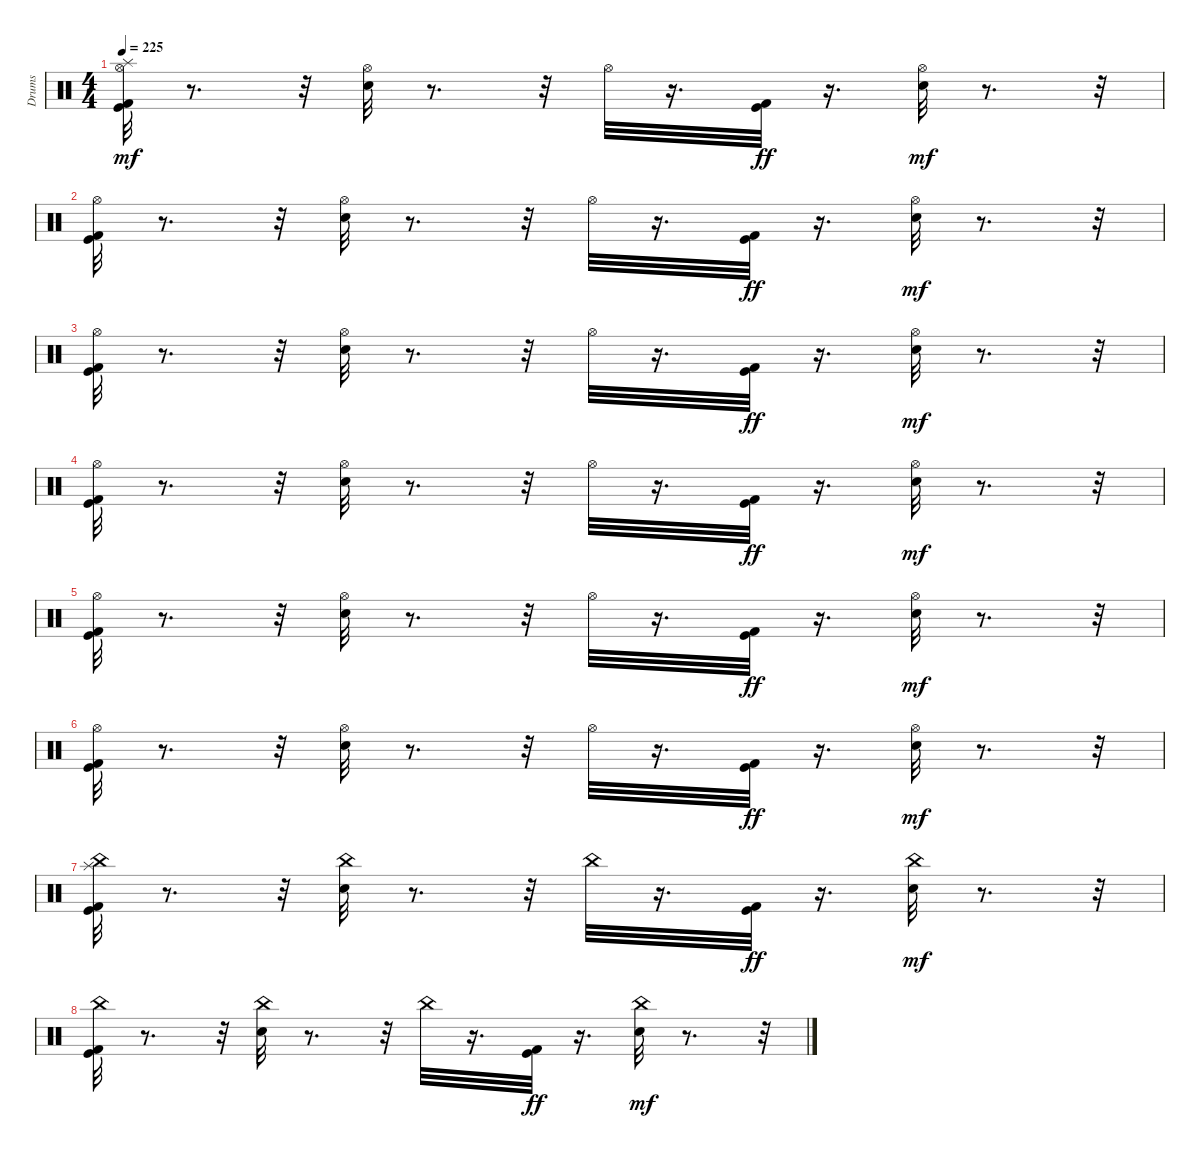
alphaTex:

\track ("Drums" "Drums") {instrument percussion}
\staff {score}
\articulation defaults
\ts (4 4)
\tempo 225
\clef neutral
\ks c
("Kick (hit) 2" "Kick (hit)" "Hi-Hat (open)" "Splash (hit)").32{dy mf} r.8{d} r.32 ("Snare (hit) 2" "Hi-Hat (open)").32 r.8{d} r.32 "Hi-Hat (open)".32 r.16{d} ("Kick (hit) 2" "Kick (hit)").32{dy ff} r.16{d} ("Snare (hit) 2" "Hi-Hat (open)").32{dy mf} r.8{d} r.32 |
("Kick (hit) 2" "Kick (hit)" "Hi-Hat (open)").32 r.8{d} r.32 ("Snare (hit) 2" "Hi-Hat (open)").32 r.8{d} r.32 "Hi-Hat (open)".32 r.16{d} ("Kick (hit) 2" "Kick (hit)").32{dy ff} r.16{d} ("Snare (hit) 2" "Hi-Hat (open)").32{dy mf} r.8{d} r.32 |
("Kick (hit) 2" "Kick (hit)" "Hi-Hat (open)").32 r.8{d} r.32 ("Snare (hit) 2" "Hi-Hat (open)").32 r.8{d} r.32 "Hi-Hat (open)".32 r.16{d} ("Kick (hit) 2" "Kick (hit)").32{dy ff} r.16{d} ("Snare (hit) 2" "Hi-Hat (open)").32{dy mf} r.8{d} r.32 |
("Kick (hit) 2" "Kick (hit)" "Hi-Hat (open)").32 r.8{d} r.32 ("Snare (hit) 2" "Hi-Hat (open)").32 r.8{d} r.32 "Hi-Hat (open)".32 r.16{d} ("Kick (hit) 2" "Kick (hit)").32{dy ff} r.16{d} ("Snare (hit) 2" "Hi-Hat (open)").32{dy mf} r.8{d} r.32 |
("Kick (hit) 2" "Kick (hit)" "Hi-Hat (open)").32 r.8{d} r.32 ("Snare (hit) 2" "Hi-Hat (open)").32 r.8{d} r.32 "Hi-Hat (open)".32 r.16{d} ("Kick (hit) 2" "Kick (hit)").32{dy ff} r.16{d} ("Snare (hit) 2" "Hi-Hat (open)").32{dy mf} r.8{d} r.32 |
("Kick (hit) 2" "Kick (hit)" "Hi-Hat (open)").32 r.8{d} r.32 ("Snare (hit) 2" "Hi-Hat (open)").32 r.8{d} r.32 "Hi-Hat (open)".32 r.16{d} ("Kick (hit) 2" "Kick (hit)").32{dy ff} r.16{d} ("Snare (hit) 2" "Hi-Hat (open)").32{dy mf} r.8{d} r.32 |
("Kick (hit) 2" "Kick (hit)" "China (hit)" "Splash (hit)").32 r.8{d} r.32 ("Snare (hit) 2" "China (hit)").32 r.8{d} r.32 "China (hit)".32 r.16{d} ("Kick (hit) 2" "Kick (hit)").32{dy ff} r.16{d} ("Snare (hit) 2" "China (hit)").32{dy mf} r.8{d} r.32 |
("Kick (hit) 2" "Kick (hit)" "China (hit)").32 r.8{d} r.32 ("Snare (hit) 2" "China (hit)").32 r.8{d} r.32 "China (hit)".32 r.16{d} ("Kick (hit) 2" "Kick (hit)").32{dy ff} r.16{d} ("Snare (hit) 2" "China (hit)").32{dy mf} r.8{d} r.32
